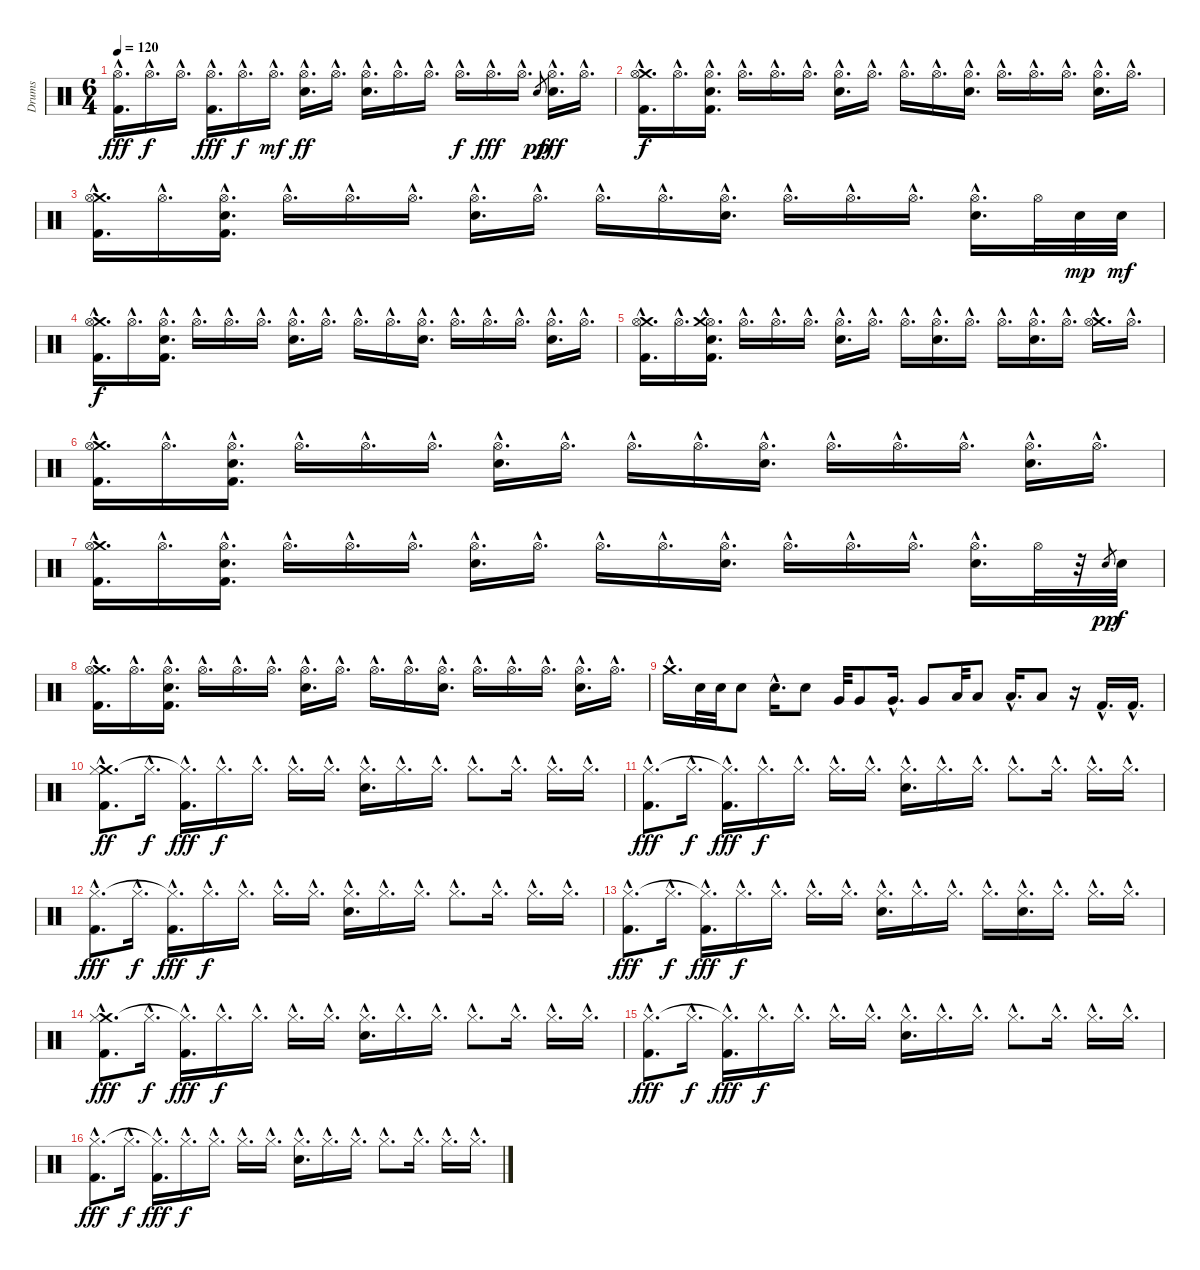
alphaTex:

\track ("Drums" "Drums") {instrument percussion}
\staff {score}
\articulation defaults
\ts (6 4)
\tempo 120
\clef neutral
\ks c
("Kick (hit) 2"{hac} "Hi-Hat (open)"{hac}).16{d dy fff} "Hi-Hat (open)"{hac}.16{d dy f} "Hi-Hat (open)"{hac}.16{d} ("Kick (hit) 2"{hac} "Hi-Hat (open)"{hac}).16{d dy fff} "Hi-Hat (open)"{hac}.16{d dy f} "Hi-Hat (open)"{hac}.16{d dy mf} ("Electric Snare (hit)"{hac} "Hi-Hat (open)"{hac}).16{d dy ff} "Hi-Hat (open)"{hac}.16{d} ("Electric Snare (hit)"{hac} "Hi-Hat (open)"{hac}).16{d} "Hi-Hat (open)"{hac}.16{d} "Hi-Hat (open)"{hac}.16{d} "Hi-Hat (open)"{hac}.16{d dy f} "Hi-Hat (open)"{hac}.16{d dy fff} "Hi-Hat (open)"{hac}.16{d} "Electric Snare (hit)".8{gr dy pp} ("Electric Snare (hit)"{hac} "Hi-Hat (open)"{hac}).16{d dy fff} "Hi-Hat (open)"{hac}.16{d} |
("Crash medium (hit)"{hac} "Hi-Hat (open)"{hac} "Kick (hit) 2"{hac}).16{d dy f} "Hi-Hat (open)"{hac}.16{d} ("Electric Snare (hit)"{hac} "Hi-Hat (open)"{hac} "Kick (hit) 2"{hac}).16{d} "Hi-Hat (open)"{hac}.16{d} "Hi-Hat (open)"{hac}.16{d} "Hi-Hat (open)"{hac}.16{d} ("Electric Snare (hit)"{hac} "Hi-Hat (open)"{hac}).16{d} "Hi-Hat (open)"{hac}.16{d} "Hi-Hat (open)"{hac}.16{d} "Hi-Hat (open)"{hac}.16{d} ("Electric Snare (hit)"{hac} "Hi-Hat (open)"{hac}).16{d} "Hi-Hat (open)"{hac}.16{d} "Hi-Hat (open)"{hac}.16{d} "Hi-Hat (open)"{hac}.16{d} ("Electric Snare (hit)"{hac} "Hi-Hat (open)"{hac}).16{d} "Hi-Hat (open)"{hac}.16{d} |
("Crash medium (hit)"{hac} "Hi-Hat (open)"{hac} "Kick (hit) 2"{hac}).16{d} "Hi-Hat (open)"{hac}.16{d} ("Electric Snare (hit)"{hac} "Hi-Hat (open)"{hac} "Kick (hit) 2"{hac}).16{d} "Hi-Hat (open)"{hac}.16{d} "Hi-Hat (open)"{hac}.16{d} "Hi-Hat (open)"{hac}.16{d} ("Electric Snare (hit)"{hac} "Hi-Hat (open)"{hac}).16{d} "Hi-Hat (open)"{hac}.16{d} "Hi-Hat (open)"{hac}.16{d} "Hi-Hat (open)"{hac}.16{d} ("Electric Snare (hit)"{hac} "Hi-Hat (open)"{hac}).16{d} "Hi-Hat (open)"{hac}.16{d} "Hi-Hat (open)"{hac}.16{d} "Hi-Hat (open)"{hac}.16{d} ("Electric Snare (hit)"{hac} "Hi-Hat (open)"{hac}).16{d} "Hi-Hat (open)".32 "Electric Snare (hit)".32{dy mp} "Electric Snare (hit)".32{dy mf} |
("Crash medium (hit)"{hac} "Hi-Hat (open)"{hac} "Kick (hit) 2"{hac}).16{d dy f} "Hi-Hat (open)"{hac}.16{d} ("Electric Snare (hit)"{hac} "Hi-Hat (open)"{hac} "Kick (hit) 2"{hac}).16{d} "Hi-Hat (open)"{hac}.16{d} "Hi-Hat (open)"{hac}.16{d} "Hi-Hat (open)"{hac}.16{d} ("Electric Snare (hit)"{hac} "Hi-Hat (open)"{hac}).16{d} "Hi-Hat (open)"{hac}.16{d} "Hi-Hat (open)"{hac}.16{d} "Hi-Hat (open)"{hac}.16{d} ("Electric Snare (hit)"{hac} "Hi-Hat (open)"{hac}).16{d} "Hi-Hat (open)"{hac}.16{d} "Hi-Hat (open)"{hac}.16{d} "Hi-Hat (open)"{hac}.16{d} ("Electric Snare (hit)"{hac} "Hi-Hat (open)"{hac}).16{d} "Hi-Hat (open)"{hac}.16{d} |
("Crash medium (hit)"{hac} "Hi-Hat (open)"{hac} "Kick (hit) 2"{hac}).16{d} "Hi-Hat (open)"{hac}.16{d} ("Electric Snare (hit)"{hac} "Hi-Hat (open)"{hac} "Kick (hit) 2"{hac} "Crash medium (hit)"{hac}).16{d} "Hi-Hat (open)"{hac}.16{d} "Hi-Hat (open)"{hac}.16{d} "Hi-Hat (open)"{hac}.16{d} ("Electric Snare (hit)"{hac} "Hi-Hat (open)"{hac}).16{d} "Hi-Hat (open)"{hac}.16{d} "Hi-Hat (open)"{hac}.16{d} ("Electric Snare (hit)"{hac} "Hi-Hat (open)"{hac}).16{d} "Hi-Hat (open)"{hac}.16{d} "Hi-Hat (open)"{hac}.16{d} ("Electric Snare (hit)"{hac} "Hi-Hat (open)"{hac}).16{d} "Hi-Hat (open)"{hac}.16{d} ("Crash medium (hit)"{hac} "Hi-Hat (open)"{hac}).16{d} "Hi-Hat (open)"{hac}.16{d} |
("Crash medium (hit)"{hac} "Hi-Hat (open)"{hac} "Kick (hit) 2"{hac}).16{d} "Hi-Hat (open)"{hac}.16{d} ("Electric Snare (hit)"{hac} "Hi-Hat (open)"{hac} "Kick (hit) 2"{hac}).16{d} "Hi-Hat (open)"{hac}.16{d} "Hi-Hat (open)"{hac}.16{d} "Hi-Hat (open)"{hac}.16{d} ("Electric Snare (hit)"{hac} "Hi-Hat (open)"{hac}).16{d} "Hi-Hat (open)"{hac}.16{d} "Hi-Hat (open)"{hac}.16{d} "Hi-Hat (open)"{hac}.16{d} ("Electric Snare (hit)"{hac} "Hi-Hat (open)"{hac}).16{d} "Hi-Hat (open)"{hac}.16{d} "Hi-Hat (open)"{hac}.16{d} "Hi-Hat (open)"{hac}.16{d} ("Electric Snare (hit)"{hac} "Hi-Hat (open)"{hac}).16{d} "Hi-Hat (open)"{hac}.16{d} |
("Crash medium (hit)"{hac} "Hi-Hat (open)"{hac} "Kick (hit) 2"{hac}).16{d} "Hi-Hat (open)"{hac}.16{d} ("Electric Snare (hit)"{hac} "Hi-Hat (open)"{hac} "Kick (hit) 2"{hac}).16{d} "Hi-Hat (open)"{hac}.16{d} "Hi-Hat (open)"{hac}.16{d} "Hi-Hat (open)"{hac}.16{d} ("Electric Snare (hit)"{hac} "Hi-Hat (open)"{hac}).16{d} "Hi-Hat (open)"{hac}.16{d} "Hi-Hat (open)"{hac}.16{d} "Hi-Hat (open)"{hac}.16{d} ("Electric Snare (hit)"{hac} "Hi-Hat (open)"{hac}).16{d} "Hi-Hat (open)"{hac}.16{d} "Hi-Hat (open)"{hac}.16{d} "Hi-Hat (open)"{hac}.16{d} ("Electric Snare (hit)"{hac} "Hi-Hat (open)"{hac}).16{d} "Hi-Hat (open)".32 r.32 "Electric Snare (hit)".8{gr dy pp} "Electric Snare (hit)".32{dy f} |
("Crash medium (hit)"{hac} "Hi-Hat (open)"{hac} "Kick (hit) 2"{hac}).16{d} "Hi-Hat (open)"{hac}.16{d} ("Electric Snare (hit)"{hac} "Hi-Hat (open)"{hac} "Kick (hit) 2"{hac}).16{d} "Hi-Hat (open)"{hac}.16{d} "Hi-Hat (open)"{hac}.16{d} "Hi-Hat (open)"{hac}.16{d} ("Electric Snare (hit)"{hac} "Hi-Hat (open)"{hac}).16{d} "Hi-Hat (open)"{hac}.16{d} "Hi-Hat (open)"{hac}.16{d} "Hi-Hat (open)"{hac}.16{d} ("Electric Snare (hit)"{hac} "Hi-Hat (open)"{hac}).16{d} "Hi-Hat (open)"{hac}.16{d} "Hi-Hat (open)"{hac}.16{d} "Hi-Hat (open)"{hac}.16{d} ("Electric Snare (hit)"{hac} "Hi-Hat (open)"{hac}).16{d} "Hi-Hat (open)"{hac}.16{d} |
"Crash medium (hit)"{hac}.16{d} "Electric Snare (hit)".32 "Electric Snare (hit)".32 "Electric Snare (hit)".8 "Electric Snare (hit)"{hac}.16{d} "Electric Snare (hit)".8 "Very Low Tom (hit)".32 "Very Low Tom (hit)".8 "Very Low Tom (hit)"{hac}.16{d} "Very Low Tom (hit)".8 "Low Floor Tom (hit)".32 "Low Floor Tom (hit)".8 "Low Floor Tom (hit)"{hac}.16{d} "Low Floor Tom (hit)".8 r.16 "Kick (hit) 2"{hac}.16{d} "Kick (hit) 2"{hac}.16{d} |
("Kick (hit) 2"{hac} "Crash medium (hit)"{hac} "Hi-Hat (closed)"{hac}).8{d dy ff} "Hi-Hat (closed)"{hac}.16{d dy f} ("Kick (hit) 2"{hac} "Hi-Hat (closed)"{hac t}).16{d dy fff} "Hi-Hat (closed)"{hac}.16{d dy f} "Hi-Hat (closed)"{hac}.16{d} "Hi-Hat (closed)"{hac}.16{d} "Hi-Hat (closed)"{hac}.16{d} ("Electric Snare (hit)"{hac} "Hi-Hat (closed)"{hac}).16{d} "Hi-Hat (closed)"{hac}.16{d} "Hi-Hat (closed)"{hac}.16{d} "Hi-Hat (closed)"{hac}.8{d} "Hi-Hat (closed)"{hac}.16{d} "Hi-Hat (closed)"{hac}.16{d} "Hi-Hat (closed)"{hac}.16{d} |
("Kick (hit) 2"{hac} "Hi-Hat (closed)"{hac}).8{d dy fff} "Hi-Hat (closed)"{hac}.16{d dy f} ("Kick (hit) 2"{hac} "Hi-Hat (closed)"{hac t}).16{d dy fff} "Hi-Hat (closed)"{hac}.16{d dy f} "Hi-Hat (closed)"{hac}.16{d} "Hi-Hat (closed)"{hac}.16{d} "Hi-Hat (closed)"{hac}.16{d} ("Electric Snare (hit)"{hac} "Hi-Hat (closed)"{hac}).16{d} "Hi-Hat (closed)"{hac}.16{d} "Hi-Hat (closed)"{hac}.16{d} "Hi-Hat (closed)"{hac}.8{d} "Hi-Hat (closed)"{hac}.16{d} "Hi-Hat (closed)"{hac}.16{d} "Hi-Hat (closed)"{hac}.16{d} |
("Kick (hit) 2"{hac} "Hi-Hat (closed)"{hac}).8{d dy fff} "Hi-Hat (closed)"{hac}.16{d dy f} ("Kick (hit) 2"{hac} "Hi-Hat (closed)"{hac t}).16{d dy fff} "Hi-Hat (closed)"{hac}.16{d dy f} "Hi-Hat (closed)"{hac}.16{d} "Hi-Hat (closed)"{hac}.16{d} "Hi-Hat (closed)"{hac}.16{d} ("Electric Snare (hit)"{hac} "Hi-Hat (closed)"{hac}).16{d} "Hi-Hat (closed)"{hac}.16{d} "Hi-Hat (closed)"{hac}.16{d} "Hi-Hat (closed)"{hac}.8{d} "Hi-Hat (closed)"{hac}.16{d} "Hi-Hat (closed)"{hac}.16{d} "Hi-Hat (closed)"{hac}.16{d} |
("Kick (hit) 2"{hac} "Hi-Hat (closed)"{hac}).8{d dy fff} "Hi-Hat (closed)"{hac}.16{d dy f} ("Kick (hit) 2"{hac} "Hi-Hat (closed)"{hac t}).16{d dy fff} "Hi-Hat (closed)"{hac}.16{d dy f} "Hi-Hat (closed)"{hac}.16{d} "Hi-Hat (closed)"{hac}.16{d} "Hi-Hat (closed)"{hac}.16{d} ("Electric Snare (hit)"{hac} "Hi-Hat (closed)"{hac}).16{d} "Hi-Hat (closed)"{hac}.16{d} "Hi-Hat (closed)"{hac}.16{d} "Hi-Hat (closed)"{hac}.16{d} ("Electric Snare (hit)"{hac} "Hi-Hat (closed)"{hac}).16{d} "Hi-Hat (closed)"{hac}.16{d} "Hi-Hat (closed)"{hac}.16{d} "Hi-Hat (closed)"{hac}.16{d} |
("Kick (hit) 2"{hac} "Crash medium (hit)"{hac} "Hi-Hat (closed)"{hac}).8{d dy fff} "Hi-Hat (closed)"{hac}.16{d dy f} ("Kick (hit) 2"{hac} "Hi-Hat (closed)"{hac t}).16{d dy fff} "Hi-Hat (closed)"{hac}.16{d dy f} "Hi-Hat (closed)"{hac}.16{d} "Hi-Hat (closed)"{hac}.16{d} "Hi-Hat (closed)"{hac}.16{d} ("Electric Snare (hit)"{hac} "Hi-Hat (closed)"{hac}).16{d} "Hi-Hat (closed)"{hac}.16{d} "Hi-Hat (closed)"{hac}.16{d} "Hi-Hat (closed)"{hac}.8{d} "Hi-Hat (closed)"{hac}.16{d} "Hi-Hat (closed)"{hac}.16{d} "Hi-Hat (closed)"{hac}.16{d} |
("Kick (hit) 2"{hac} "Hi-Hat (closed)"{hac}).8{d dy fff} "Hi-Hat (closed)"{hac}.16{d dy f} ("Kick (hit) 2"{hac} "Hi-Hat (closed)"{hac t}).16{d dy fff} "Hi-Hat (closed)"{hac}.16{d dy f} "Hi-Hat (closed)"{hac}.16{d} "Hi-Hat (closed)"{hac}.16{d} "Hi-Hat (closed)"{hac}.16{d} ("Electric Snare (hit)"{hac} "Hi-Hat (closed)"{hac}).16{d} "Hi-Hat (closed)"{hac}.16{d} "Hi-Hat (closed)"{hac}.16{d} "Hi-Hat (closed)"{hac}.8{d} "Hi-Hat (closed)"{hac}.16{d} "Hi-Hat (closed)"{hac}.16{d} "Hi-Hat (closed)"{hac}.16{d} |
("Kick (hit) 2"{hac} "Hi-Hat (closed)"{hac}).8{d dy fff} "Hi-Hat (closed)"{hac}.16{d dy f} ("Kick (hit) 2"{hac} "Hi-Hat (closed)"{hac t}).16{d dy fff} "Hi-Hat (closed)"{hac}.16{d dy f} "Hi-Hat (closed)"{hac}.16{d} "Hi-Hat (closed)"{hac}.16{d} "Hi-Hat (closed)"{hac}.16{d} ("Electric Snare (hit)"{hac} "Hi-Hat (closed)"{hac}).16{d} "Hi-Hat (closed)"{hac}.16{d} "Hi-Hat (closed)"{hac}.16{d} "Hi-Hat (closed)"{hac}.8{d} "Hi-Hat (closed)"{hac}.16{d} "Hi-Hat (closed)"{hac}.16{d} "Hi-Hat (closed)"{hac}.16{d}
